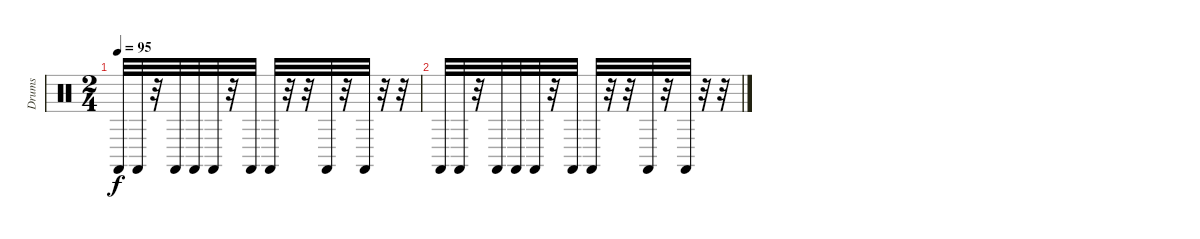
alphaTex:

\track ("Drums" "Drums") {instrument percussion}
\staff {score}
\articulation defaults
\ts (2 4)
\tempo 95
\clef neutral
\ks c "Castanets (hit)".32{dy f} "Castanets (hit)".32
r.32 "Castanets (hit)".32 "Castanets (hit)".32 "Castanets (hit)".32 r.32 "Castanets (hit)".32 "Castanets (hit)".32 r.32 r.32 "Castanets (hit)".32 r.32 "Castanets (hit)".32 r.32 r.32 |
"Castanets (hit)".32 "Castanets (hit)".32 r.32 "Castanets (hit)".32 "Castanets (hit)".32 "Castanets (hit)".32 r.32 "Castanets (hit)".32 "Castanets (hit)".32 r.32 r.32 "Castanets (hit)".32 r.32 "Castanets (hit)".32 r.32 r.32
